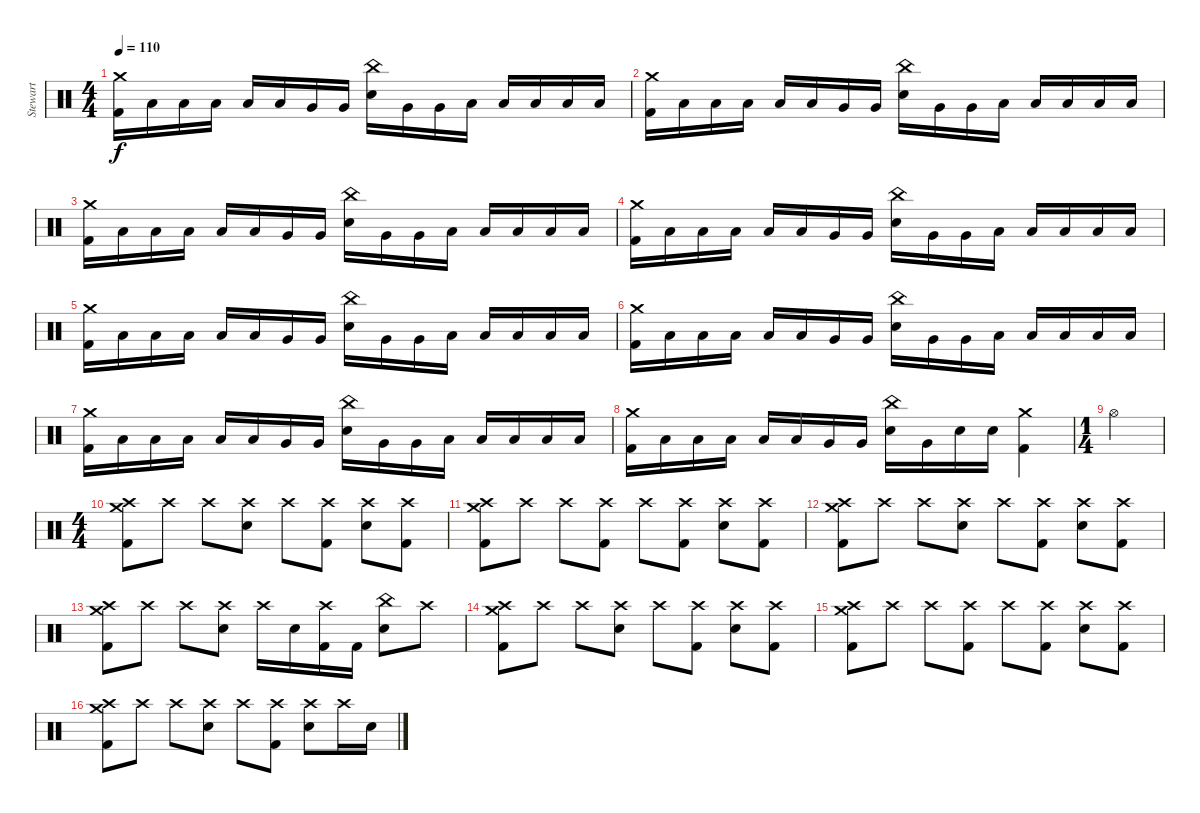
\track ("Stewart" "Stewart") {instrument percussion}
\staff {score}
\articulation defaults
\ts (4 4)
\tempo 110
\clef neutral
\ks c
("Crash medium (hit)" "Kick (hit) 2").16{dy f} "Low Tom (hit)".16 "Low Tom (hit)".16 "Low Tom (hit)".16 "Low Tom (hit)".16 "Low Tom (hit)".16 "Very Low Tom (hit)".16 "Very Low Tom (hit)".16 ("China (hit)" "Electric Snare (hit)").16 "Very Low Tom (hit)".16 "Very Low Tom (hit)".16 "Low Tom (hit)".16 "Low Tom (hit)".16 "Low Tom (hit)".16 "Low Tom (hit)".16 "Low Tom (hit)".16 |
("Crash medium (hit)" "Kick (hit) 2").16 "Low Tom (hit)".16 "Low Tom (hit)".16 "Low Tom (hit)".16 "Low Tom (hit)".16 "Low Tom (hit)".16 "Very Low Tom (hit)".16 "Very Low Tom (hit)".16 ("China (hit)" "Electric Snare (hit)").16 "Very Low Tom (hit)".16 "Very Low Tom (hit)".16 "Low Tom (hit)".16 "Low Tom (hit)".16 "Low Tom (hit)".16 "Low Tom (hit)".16 "Low Tom (hit)".16 |
("Crash medium (hit)" "Kick (hit) 2").16 "Low Tom (hit)".16 "Low Tom (hit)".16 "Low Tom (hit)".16 "Low Tom (hit)".16 "Low Tom (hit)".16 "Very Low Tom (hit)".16 "Very Low Tom (hit)".16 ("China (hit)" "Electric Snare (hit)").16 "Very Low Tom (hit)".16 "Very Low Tom (hit)".16 "Low Tom (hit)".16 "Low Tom (hit)".16 "Low Tom (hit)".16 "Low Tom (hit)".16 "Low Tom (hit)".16 |
("Crash medium (hit)" "Kick (hit) 2").16 "Low Tom (hit)".16 "Low Tom (hit)".16 "Low Tom (hit)".16 "Low Tom (hit)".16 "Low Tom (hit)".16 "Very Low Tom (hit)".16 "Very Low Tom (hit)".16 ("China (hit)" "Electric Snare (hit)").16 "Very Low Tom (hit)".16 "Very Low Tom (hit)".16 "Low Tom (hit)".16 "Low Tom (hit)".16 "Low Tom (hit)".16 "Low Tom (hit)".16 "Low Tom (hit)".16 |
("Crash medium (hit)" "Kick (hit) 2").16 "Low Tom (hit)".16 "Low Tom (hit)".16 "Low Tom (hit)".16 "Low Tom (hit)".16 "Low Tom (hit)".16 "Very Low Tom (hit)".16 "Very Low Tom (hit)".16 ("China (hit)" "Electric Snare (hit)").16 "Very Low Tom (hit)".16 "Very Low Tom (hit)".16 "Low Tom (hit)".16 "Low Tom (hit)".16 "Low Tom (hit)".16 "Low Tom (hit)".16 "Low Tom (hit)".16 |
("Crash medium (hit)" "Kick (hit) 2").16 "Low Tom (hit)".16 "Low Tom (hit)".16 "Low Tom (hit)".16 "Low Tom (hit)".16 "Low Tom (hit)".16 "Very Low Tom (hit)".16 "Very Low Tom (hit)".16 ("China (hit)" "Electric Snare (hit)").16 "Very Low Tom (hit)".16 "Very Low Tom (hit)".16 "Low Tom (hit)".16 "Low Tom (hit)".16 "Low Tom (hit)".16 "Low Tom (hit)".16 "Low Tom (hit)".16 |
("Crash medium (hit)" "Kick (hit) 2").16 "Low Tom (hit)".16 "Low Tom (hit)".16 "Low Tom (hit)".16 "Low Tom (hit)".16 "Low Tom (hit)".16 "Very Low Tom (hit)".16 "Very Low Tom (hit)".16 ("China (hit)" "Electric Snare (hit)").16 "Very Low Tom (hit)".16 "Very Low Tom (hit)".16 "Low Tom (hit)".16 "Low Tom (hit)".16 "Low Tom (hit)".16 "Low Tom (hit)".16 "Low Tom (hit)".16 |
("Crash medium (hit)" "Kick (hit) 2").16 "Low Tom (hit)".16 "Low Tom (hit)".16 "Low Tom (hit)".16 "Low Tom (hit)".16 "Low Tom (hit)".16 "Very Low Tom (hit)".16 "Very Low Tom (hit)".16 ("China (hit)" "Electric Snare (hit)").16 "Very Low Tom (hit)".16 "Electric Snare (hit)".16 "Electric Snare (hit)".16 ("Crash medium (hit)" "Kick (hit) 2").4 |
\ts (1 4)
"Hi-Hat (open)".4 |
\ts (4 4)
("Crash high (hit)" "Crash medium (hit)" "Kick (hit) 2").8 "Crash high (hit)".8 "Crash high (hit)".8 ("Crash high (hit)" "Electric Snare (hit)").8 "Crash high (hit)".8 ("Crash high (hit)" "Kick (hit) 2").8 ("Crash high (hit)" "Electric Snare (hit)").8 ("Crash high (hit)" "Kick (hit) 2").8 |
("Crash high (hit)" "Crash medium (hit)" "Kick (hit) 2").8 "Crash high (hit)".8 "Crash high (hit)".8 ("Crash high (hit)" "Kick (hit) 2").8 "Crash high (hit)".8 ("Crash high (hit)" "Kick (hit) 2").8 ("Crash high (hit)" "Electric Snare (hit)").8 ("Crash high (hit)" "Kick (hit) 2").8 |
("Crash high (hit)" "Crash medium (hit)" "Kick (hit) 2").8 "Crash high (hit)".8 "Crash high (hit)".8 ("Crash high (hit)" "Electric Snare (hit)").8 "Crash high (hit)".8 ("Crash high (hit)" "Kick (hit) 2").8 ("Crash high (hit)" "Electric Snare (hit)").8 ("Crash high (hit)" "Kick (hit) 2").8 |
("Crash high (hit)" "Crash medium (hit)" "Kick (hit) 2").8 "Crash high (hit)".8 "Crash high (hit)".8 ("Crash high (hit)" "Electric Snare (hit)").8 "Crash high (hit)".16 "Electric Snare (hit)".16 ("Crash high (hit)" "Kick (hit) 2").16 "Kick (hit) 2".16 ("China (hit)" "Electric Snare (hit)").8 "Crash high (hit)".8 |
("Crash high (hit)" "Crash medium (hit)" "Kick (hit) 2").8 "Crash high (hit)".8 "Crash high (hit)".8 ("Crash high (hit)" "Electric Snare (hit)").8 "Crash high (hit)".8 ("Crash high (hit)" "Kick (hit) 2").8 ("Crash high (hit)" "Electric Snare (hit)").8 ("Crash high (hit)" "Kick (hit) 2").8 |
("Crash high (hit)" "Crash medium (hit)" "Kick (hit) 2").8 "Crash high (hit)".8 "Crash high (hit)".8 ("Crash high (hit)" "Kick (hit) 2").8 "Crash high (hit)".8 ("Crash high (hit)" "Kick (hit) 2").8 ("Crash high (hit)" "Electric Snare (hit)").8 ("Crash high (hit)" "Kick (hit) 2").8 |
("Crash high (hit)" "Crash medium (hit)" "Kick (hit) 2").8 "Crash high (hit)".8 "Crash high (hit)".8 ("Crash high (hit)" "Electric Snare (hit)").8 "Crash high (hit)".8 ("Crash high (hit)" "Kick (hit) 2").8 ("Crash high (hit)" "Electric Snare (hit)").8 "Crash high (hit)".16 "Electric Snare (hit)".16
